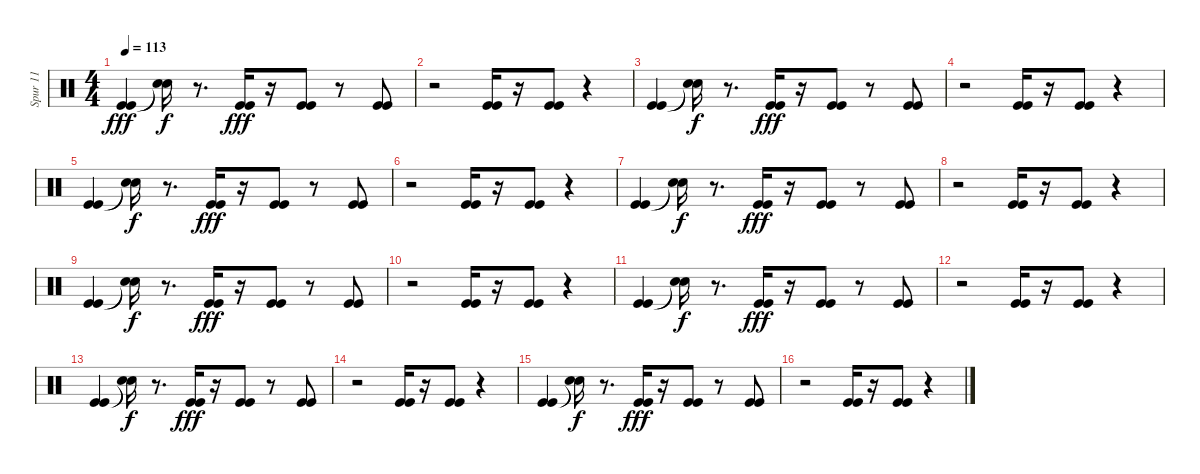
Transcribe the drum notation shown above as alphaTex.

\track ("Spur 11" "Spur 11") {instrument percussion}
\staff {score}
\articulation defaults
\ts (4 4)
\tempo 113
\clef neutral
\ks c
("Kick (hit)" "Kick (hit)").4{dy fff} ("Snare (hit)"{t} "Snare (hit)"{t}).16{dy f} r.8{d} ("Kick (hit)" "Kick (hit)").16{dy fff} r.16 ("Kick (hit)" "Kick (hit)").8 r.8 ("Kick (hit)" "Kick (hit)").8{volume 13} |
r.2 ("Kick (hit)" "Kick (hit)").16{volume 12} r.16 ("Kick (hit)" "Kick (hit)").8 r.4 |
("Kick (hit)" "Kick (hit)").4{volume 12} ("Snare (hit)"{t} "Snare (hit)"{t}).16{dy f} r.8{d} ("Kick (hit)" "Kick (hit)").16{dy fff} r.16 ("Kick (hit)" "Kick (hit)").8 r.8 ("Kick (hit)" "Kick (hit)").8 |
r.2 ("Kick (hit)" "Kick (hit)").16{volume 12} r.16 ("Kick (hit)" "Kick (hit)").8 r.4 |
("Kick (hit)" "Kick (hit)").4 ("Snare (hit)"{t} "Snare (hit)"{t}).16{dy f} r.8{d} ("Kick (hit)" "Kick (hit)").16{dy fff} r.16 ("Kick (hit)" "Kick (hit)").8 r.8 ("Kick (hit)" "Kick (hit)").8 |
r.2 ("Kick (hit)" "Kick (hit)").16 r.16 ("Kick (hit)" "Kick (hit)").8 r.4 |
("Kick (hit)" "Kick (hit)").4 ("Snare (hit)"{t} "Snare (hit)"{t}).16{dy f} r.8{d} ("Kick (hit)" "Kick (hit)").16{dy fff} r.16 ("Kick (hit)" "Kick (hit)").8 r.8 ("Kick (hit)" "Kick (hit)").8 |
r.2 ("Kick (hit)" "Kick (hit)").16 r.16 ("Kick (hit)" "Kick (hit)").8 r.4 |
("Kick (hit)" "Kick (hit)").4 ("Snare (hit)"{t} "Snare (hit)"{t}).16{dy f} r.8{d} ("Kick (hit)" "Kick (hit)").16{dy fff balance 8} r.16 ("Kick (hit)" "Kick (hit)").8 r.8 ("Kick (hit)" "Kick (hit)").8 |
r.2 ("Kick (hit)" "Kick (hit)").16 r.16 ("Kick (hit)" "Kick (hit)").8 r.4 |
("Kick (hit)" "Kick (hit)").4 ("Snare (hit)"{t} "Snare (hit)"{t}).16{dy f} r.8{d} ("Kick (hit)" "Kick (hit)").16{dy fff} r.16 ("Kick (hit)" "Kick (hit)").8 r.8 ("Kick (hit)" "Kick (hit)").8 |
r.2 ("Kick (hit)" "Kick (hit)").16 r.16 ("Kick (hit)" "Kick (hit)").8 r.4 |
("Kick (hit)" "Kick (hit)").4 ("Snare (hit)"{t} "Snare (hit)"{t}).16{dy f} r.8{d} ("Kick (hit)" "Kick (hit)").16{dy fff} r.16 ("Kick (hit)" "Kick (hit)").8 r.8 ("Kick (hit)" "Kick (hit)").8 |
r.2 ("Kick (hit)" "Kick (hit)").16 r.16 ("Kick (hit)" "Kick (hit)").8 r.4 |
("Kick (hit)" "Kick (hit)").4 ("Snare (hit)"{t} "Snare (hit)"{t}).16{dy f} r.8{d} ("Kick (hit)" "Kick (hit)").16{dy fff} r.16 ("Kick (hit)" "Kick (hit)").8 r.8 ("Kick (hit)" "Kick (hit)").8 |
r.2 ("Kick (hit)" "Kick (hit)").16 r.16 ("Kick (hit)" "Kick (hit)").8 r.4
